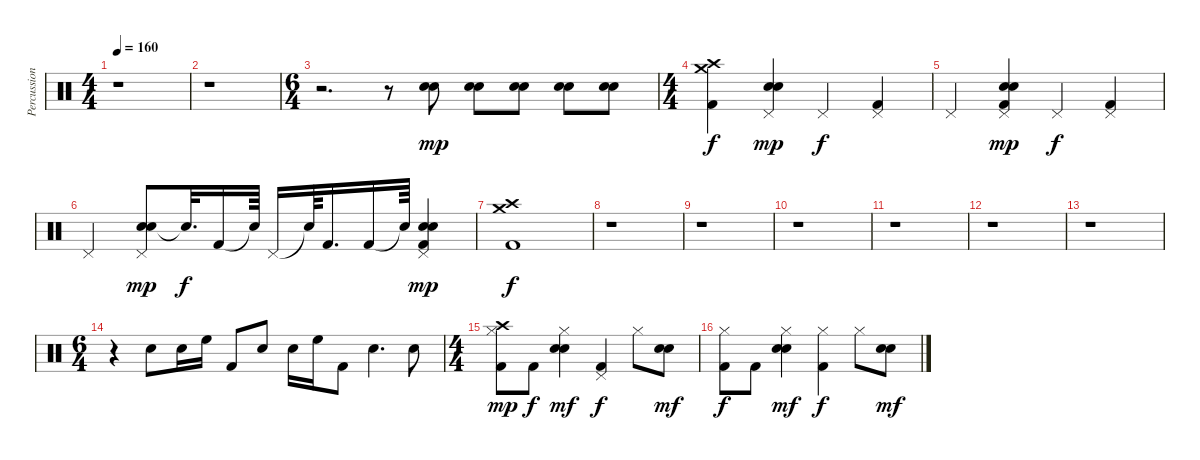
\track ("Percussion" "Percussion") {instrument percussion}
\staff {score}
\articulation defaults
\ts (4 4)
\tempo 160
\clef neutral
\ks c
r.1{dy f} |
r.1 |
\ts (6 4)
r.2{d} r.8 ("Snare (hit) 2" "Electric Snare (hit)").8{dy mp} ("Snare (hit) 2" "Electric Snare (hit)").8 ("Snare (hit) 2" "Electric Snare (hit)").8 ("Snare (hit) 2" "Electric Snare (hit)").8 ("Snare (hit) 2" "Electric Snare (hit)").8 |
\ts (4 4)
("Crash medium (hit)" "Kick (hit) 2" "Crash high (hit)").4{dy f} ("Snare (hit) 2" "Electric Snare (hit)" "Pedal Hi-Hat (hit)").4{dy mp} "Pedal Hi-Hat (hit)".4{dy f} ("Pedal Hi-Hat (hit)" "Kick (hit) 2").4 |
"Pedal Hi-Hat (hit)".4 ("Snare (hit) 2" "Pedal Hi-Hat (hit)" "Kick (hit) 2" "Electric Snare (hit)").4{dy mp} "Pedal Hi-Hat (hit)".4{dy f} ("Kick (hit) 2" "Pedal Hi-Hat (hit)").4 |
"Pedal Hi-Hat (hit)".4 ("Snare (hit) 2" "Electric Snare (hit)" "Pedal Hi-Hat (hit)").8{dy mp} "Snare (hit)"{t}.32{d dy f} "Kick (hit) 2".16 "Snare (hit)"{t}.64 "Pedal Hi-Hat (hit)".16 "Snare (hit)"{t}.64 "Kick (hit) 2".16{d} "Kick (hit) 2".16 "Snare (hit)"{t}.64 ("Snare (hit) 2" "Electric Snare (hit)" "Pedal Hi-Hat (hit)" "Kick (hit) 2").4{dy mp} |
("Kick (hit) 2" "Crash high (hit)" "Crash medium (hit)").1{dy f} |
r.1 |
r.1 |
r.1 |
r.1 |
r.1 |
r.1 |
\ts (6 4)
r.4 "Snare (hit) 2".8 "Snare (hit) 2".16 "High Floor Tom (hit)".16 "Kick (hit) 2".8 "Snare (hit) 2".8 "Snare (hit) 2".16 "High Floor Tom (hit)".16 "Kick (hit) 2".8 "Snare (hit) 2".4{d} "Snare (hit) 2".8 |
\ts (4 4)
("Hi-Hat (closed)" "Kick (hit) 2" "Crash high (hit)").8{dy mp} "Kick (hit) 2".8{dy f} ("Hi-Hat (closed)" "Snare (hit) 2" "Electric Snare (hit)").4{dy mf} ("Pedal Hi-Hat (hit)" "Kick (hit) 2").4{dy f} "Hi-Hat (closed)".8 ("Snare (hit) 2" "Electric Snare (hit)").8{dy mf} |
("Hi-Hat (closed)" "Kick (hit) 2").8{dy f} "Kick (hit) 2".8 ("Hi-Hat (closed)" "Snare (hit) 2" "Electric Snare (hit)").4{dy mf} ("Hi-Hat (closed)" "Kick (hit) 2").4{dy f} "Hi-Hat (closed)".8 ("Snare (hit) 2" "Electric Snare (hit)").8{dy mf}
